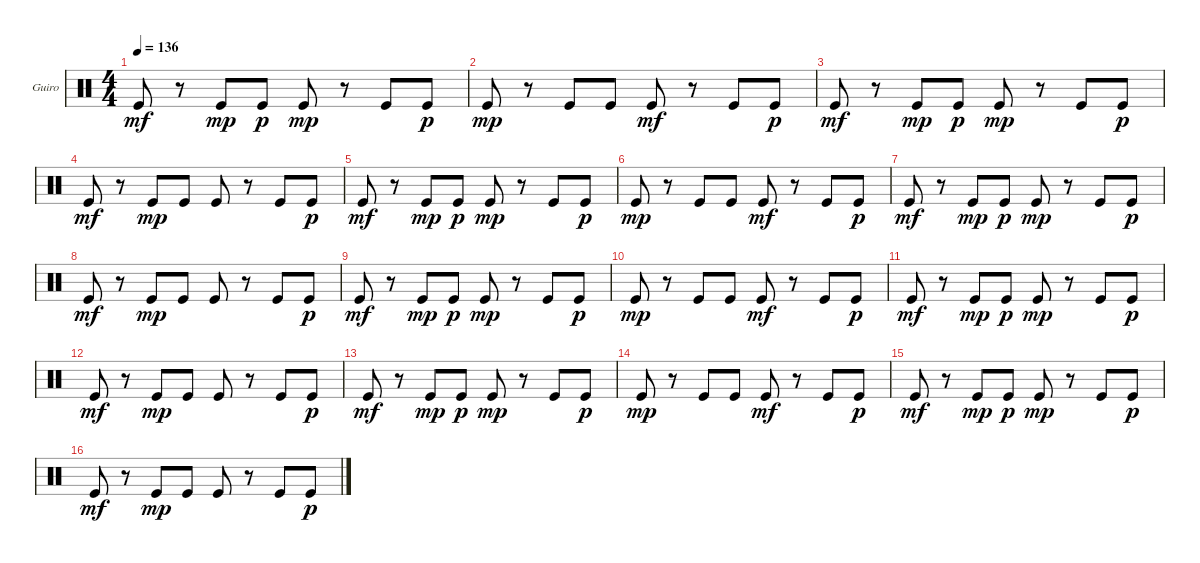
\bracketExtendMode groupsimilarinstruments
\firstSystemTrackNameOrientation horizontal
\otherSystemsTrackNameOrientation horizontal
\track ("Guiro" "Guiro") {instrument percussion}
\staff {score}
\articulation defaults
\ts (4 4)
\tempo 136
\clef neutral
\ks c "Kick (hit)".8{dy mf}
r.8 "Kick (hit)".8{dy mp} "Kick (hit)".8{dy p} "Kick (hit)".8{dy mp} r.8 "Kick (hit)".8 "Kick (hit)".8{dy p} |
"Kick (hit)".8{dy mp} r.8 "Kick (hit)".8 "Kick (hit)".8 "Kick (hit)".8{dy mf} r.8 "Kick (hit)".8 "Kick (hit)".8{dy p} |
"Kick (hit)".8{dy mf} r.8 "Kick (hit)".8{dy mp} "Kick (hit)".8{dy p} "Kick (hit)".8{dy mp} r.8 "Kick (hit)".8 "Kick (hit)".8{dy p} |
"Kick (hit)".8{dy mf} r.8 "Kick (hit)".8{dy mp} "Kick (hit)".8 "Kick (hit)".8 r.8 "Kick (hit)".8 "Kick (hit)".8{dy p} |
"Kick (hit)".8{dy mf} r.8 "Kick (hit)".8{dy mp} "Kick (hit)".8{dy p} "Kick (hit)".8{dy mp} r.8 "Kick (hit)".8 "Kick (hit)".8{dy p} |
"Kick (hit)".8{dy mp} r.8 "Kick (hit)".8 "Kick (hit)".8 "Kick (hit)".8{dy mf} r.8 "Kick (hit)".8 "Kick (hit)".8{dy p} |
"Kick (hit)".8{dy mf} r.8 "Kick (hit)".8{dy mp} "Kick (hit)".8{dy p} "Kick (hit)".8{dy mp} r.8 "Kick (hit)".8 "Kick (hit)".8{dy p} |
"Kick (hit)".8{dy mf} r.8 "Kick (hit)".8{dy mp} "Kick (hit)".8 "Kick (hit)".8 r.8 "Kick (hit)".8 "Kick (hit)".8{dy p} |
"Kick (hit)".8{dy mf} r.8 "Kick (hit)".8{dy mp} "Kick (hit)".8{dy p} "Kick (hit)".8{dy mp} r.8 "Kick (hit)".8 "Kick (hit)".8{dy p} |
"Kick (hit)".8{dy mp} r.8 "Kick (hit)".8 "Kick (hit)".8 "Kick (hit)".8{dy mf} r.8 "Kick (hit)".8 "Kick (hit)".8{dy p} |
"Kick (hit)".8{dy mf} r.8 "Kick (hit)".8{dy mp} "Kick (hit)".8{dy p} "Kick (hit)".8{dy mp} r.8 "Kick (hit)".8 "Kick (hit)".8{dy p} |
"Kick (hit)".8{dy mf} r.8 "Kick (hit)".8{dy mp} "Kick (hit)".8 "Kick (hit)".8 r.8 "Kick (hit)".8 "Kick (hit)".8{dy p} |
"Kick (hit)".8{dy mf} r.8 "Kick (hit)".8{dy mp} "Kick (hit)".8{dy p} "Kick (hit)".8{dy mp} r.8 "Kick (hit)".8 "Kick (hit)".8{dy p} |
"Kick (hit)".8{dy mp} r.8 "Kick (hit)".8 "Kick (hit)".8 "Kick (hit)".8{dy mf} r.8 "Kick (hit)".8 "Kick (hit)".8{dy p} |
"Kick (hit)".8{dy mf} r.8 "Kick (hit)".8{dy mp} "Kick (hit)".8{dy p} "Kick (hit)".8{dy mp} r.8 "Kick (hit)".8 "Kick (hit)".8{dy p} |
"Kick (hit)".8{dy mf} r.8 "Kick (hit)".8{dy mp} "Kick (hit)".8 "Kick (hit)".8 r.8 "Kick (hit)".8 "Kick (hit)".8{dy p}
